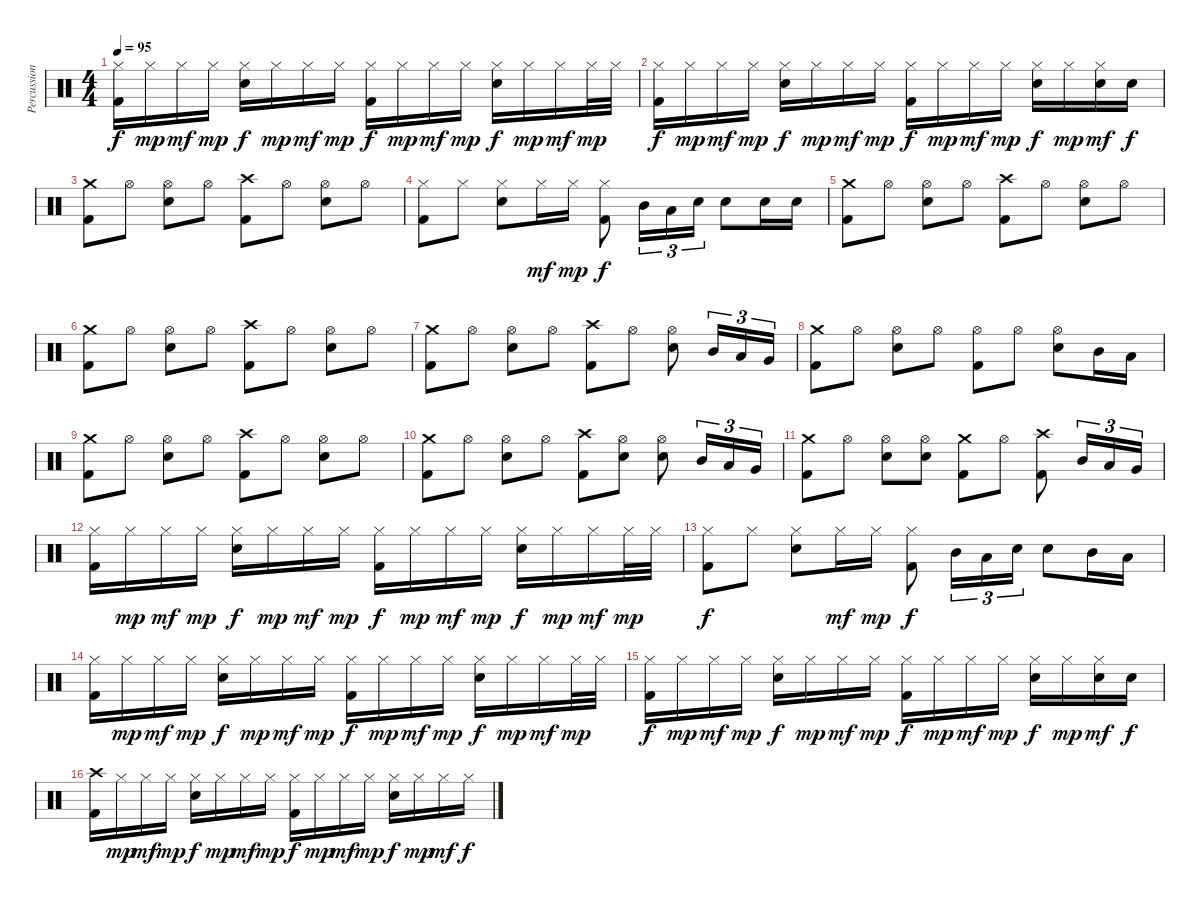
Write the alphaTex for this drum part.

\track ("Percussion" "Percussion") {instrument percussion}
\staff {score}
\articulation defaults
\ts (4 4)
\tempo 95
\clef neutral
\ks c
("Hi-Hat (closed)" "Kick (hit) 2").16{dy f} "Hi-Hat (closed)".16{dy mp} "Hi-Hat (closed)".16{dy mf} "Hi-Hat (closed)".16{dy mp} ("Hi-Hat (closed)" "Snare (hit) 2").16{dy f} "Hi-Hat (closed)".16{dy mp} "Hi-Hat (closed)".16{dy mf} "Hi-Hat (closed)".16{dy mp} ("Hi-Hat (closed)" "Kick (hit) 2").16{dy f} "Hi-Hat (closed)".16{dy mp} "Hi-Hat (closed)".16{dy mf} "Hi-Hat (closed)".16{dy mp} ("Hi-Hat (closed)" "Snare (hit) 2").16{dy f} "Hi-Hat (closed)".16{dy mp} "Hi-Hat (closed)".16{dy mf} "Hi-Hat (closed)".32{dy mp} "Hi-Hat (closed)".32 |
("Hi-Hat (closed)" "Kick (hit) 2").16{dy f} "Hi-Hat (closed)".16{dy mp} "Hi-Hat (closed)".16{dy mf} "Hi-Hat (closed)".16{dy mp} ("Hi-Hat (closed)" "Snare (hit) 2").16{dy f} "Hi-Hat (closed)".16{dy mp} "Hi-Hat (closed)".16{dy mf} "Hi-Hat (closed)".16{dy mp} ("Hi-Hat (closed)" "Kick (hit) 2").16{dy f} "Hi-Hat (closed)".16{dy mp} "Hi-Hat (closed)".16{dy mf} "Hi-Hat (closed)".16{dy mp} ("Hi-Hat (closed)" "Snare (hit) 2").16{dy f} "Hi-Hat (closed)".16{dy mp} ("Hi-Hat (closed)" "Snare (hit) 2").16{dy mf} "Snare (hit) 2".16{dy f} |
("Crash medium (hit)" "Kick (hit) 2").8 "Hi-Hat (open)".8 ("Hi-Hat (open)" "Snare (hit) 2").8 "Hi-Hat (open)".8 ("Crash high (hit)" "Kick (hit) 2").8 "Hi-Hat (open)".8 ("Hi-Hat (open)" "Snare (hit) 2").8 "Hi-Hat (open)".8 |
("Hi-Hat (closed)" "Kick (hit) 2").8 "Hi-Hat (closed)".8 ("Hi-Hat (closed)" "Snare (hit) 2").8 "Hi-Hat (closed)".16{dy mf} "Hi-Hat (closed)".16{dy mp} ("Hi-Hat (closed)" "Kick (hit) 2").8{dy f} "Mid Tom (hit)".16{tu (3 2)} "Low Tom (hit)".16{tu (3 2)} "Snare (hit) 2".16{tu (3 2)} "Snare (hit) 2".8 "Snare (hit) 2".16 "Snare (hit) 2".16 |
("Crash medium (hit)" "Kick (hit) 2").8 "Hi-Hat (open)".8 ("Hi-Hat (open)" "Snare (hit) 2").8 "Hi-Hat (open)".8 ("Crash high (hit)" "Kick (hit) 2").8 "Hi-Hat (open)".8 ("Hi-Hat (open)" "Snare (hit) 2").8 "Hi-Hat (open)".8 |
("Crash medium (hit)" "Kick (hit) 2").8 "Hi-Hat (open)".8 ("Hi-Hat (open)" "Snare (hit) 2").8 "Hi-Hat (open)".8 ("Crash high (hit)" "Kick (hit) 2").8 "Hi-Hat (open)".8 ("Hi-Hat (open)" "Snare (hit) 2").8 "Hi-Hat (open)".8 |
("Crash medium (hit)" "Kick (hit) 2").8 "Hi-Hat (open)".8 ("Hi-Hat (open)" "Snare (hit) 2").8 "Hi-Hat (open)".8 ("Crash high (hit)" "Kick (hit) 2").8 "Hi-Hat (open)".8 ("Hi-Hat (open)" "Snare (hit) 2").8 "Mid Tom (hit)".16{tu (3 2)} "Low Tom (hit)".16{tu (3 2)} "Very Low Tom (hit)".16{tu (3 2)} |
("Crash medium (hit)" "Kick (hit) 2").8 "Hi-Hat (open)".8 ("Hi-Hat (open)" "Snare (hit) 2").8 "Hi-Hat (open)".8 ("Hi-Hat (open)" "Kick (hit) 2").8 "Hi-Hat (open)".8 ("Hi-Hat (open)" "Snare (hit) 2").8 "Mid Tom (hit)".16 "Low Tom (hit)".16 |
("Crash medium (hit)" "Kick (hit) 2").8 "Hi-Hat (open)".8 ("Hi-Hat (open)" "Snare (hit) 2").8 "Hi-Hat (open)".8 ("Crash high (hit)" "Kick (hit) 2").8 "Hi-Hat (open)".8 ("Hi-Hat (open)" "Snare (hit) 2").8 "Hi-Hat (open)".8 |
("Crash medium (hit)" "Kick (hit) 2").8 "Hi-Hat (open)".8 ("Hi-Hat (open)" "Snare (hit) 2").8 "Hi-Hat (open)".8 ("Crash high (hit)" "Kick (hit) 2").8 ("Hi-Hat (open)" "Snare (hit) 2").8 ("Hi-Hat (open)" "Snare (hit) 2").8 "Mid Tom (hit)".16{tu (3 2)} "Low Tom (hit)".16{tu (3 2)} "Very Low Tom (hit)".16{tu (3 2)} |
("Crash medium (hit)" "Kick (hit) 2").8 "Hi-Hat (open)".8 ("Hi-Hat (open)" "Snare (hit) 2").8 ("Hi-Hat (open)" "Snare (hit) 2").8 ("Crash medium (hit)" "Kick (hit) 2").8 "Hi-Hat (open)".8 ("Crash high (hit)" "Kick (hit) 2").8 "Mid Tom (hit)".16{tu (3 2)} "Low Tom (hit)".16{tu (3 2)} "Very Low Tom (hit)".16{tu (3 2)} |
("Hi-Hat (closed)" "Kick (hit) 2").16 "Hi-Hat (closed)".16{dy mp} "Hi-Hat (closed)".16{dy mf} "Hi-Hat (closed)".16{dy mp} ("Hi-Hat (closed)" "Snare (hit) 2").16{dy f} "Hi-Hat (closed)".16{dy mp} "Hi-Hat (closed)".16{dy mf} "Hi-Hat (closed)".16{dy mp} ("Hi-Hat (closed)" "Kick (hit) 2").16{dy f} "Hi-Hat (closed)".16{dy mp} "Hi-Hat (closed)".16{dy mf} "Hi-Hat (closed)".16{dy mp} ("Hi-Hat (closed)" "Snare (hit) 2").16{dy f} "Hi-Hat (closed)".16{dy mp} "Hi-Hat (closed)".16{dy mf} "Hi-Hat (closed)".32{dy mp} "Hi-Hat (closed)".32 |
("Hi-Hat (closed)" "Kick (hit) 2").8{dy f} "Hi-Hat (closed)".8 ("Hi-Hat (closed)" "Snare (hit) 2").8 "Hi-Hat (closed)".16{dy mf} "Hi-Hat (closed)".16{dy mp} ("Hi-Hat (closed)" "Kick (hit) 2").8{dy f} "Mid Tom (hit)".16{tu (3 2)} "Low Tom (hit)".16{tu (3 2)} "Snare (hit) 2".16{tu (3 2)} "Snare (hit) 2".8 "Mid Tom (hit)".16 "Low Tom (hit)".16 |
("Hi-Hat (closed)" "Kick (hit) 2").16 "Hi-Hat (closed)".16{dy mp} "Hi-Hat (closed)".16{dy mf} "Hi-Hat (closed)".16{dy mp} ("Hi-Hat (closed)" "Snare (hit) 2").16{dy f} "Hi-Hat (closed)".16{dy mp} "Hi-Hat (closed)".16{dy mf} "Hi-Hat (closed)".16{dy mp} ("Hi-Hat (closed)" "Kick (hit) 2").16{dy f} "Hi-Hat (closed)".16{dy mp} "Hi-Hat (closed)".16{dy mf} "Hi-Hat (closed)".16{dy mp} ("Hi-Hat (closed)" "Snare (hit) 2").16{dy f} "Hi-Hat (closed)".16{dy mp} "Hi-Hat (closed)".16{dy mf} "Hi-Hat (closed)".32{dy mp} "Hi-Hat (closed)".32 |
("Hi-Hat (closed)" "Kick (hit) 2").16{dy f} "Hi-Hat (closed)".16{dy mp} "Hi-Hat (closed)".16{dy mf} "Hi-Hat (closed)".16{dy mp} ("Hi-Hat (closed)" "Snare (hit) 2").16{dy f} "Hi-Hat (closed)".16{dy mp} "Hi-Hat (closed)".16{dy mf} "Hi-Hat (closed)".16{dy mp} ("Hi-Hat (closed)" "Kick (hit) 2").16{dy f} "Hi-Hat (closed)".16{dy mp} "Hi-Hat (closed)".16{dy mf} "Hi-Hat (closed)".16{dy mp} ("Hi-Hat (closed)" "Snare (hit) 2").16{dy f} "Hi-Hat (closed)".16{dy mp} ("Hi-Hat (closed)" "Snare (hit) 2").16{dy mf} "Snare (hit) 2".16{dy f} |
("Crash high (hit)" "Kick (hit) 2").16 "Hi-Hat (closed)".16{dy mp} "Hi-Hat (closed)".16{dy mf} "Hi-Hat (closed)".16{dy mp} ("Hi-Hat (closed)" "Snare (hit) 2").16{dy f} "Hi-Hat (closed)".16{dy mp} "Hi-Hat (closed)".16{dy mf} "Hi-Hat (closed)".16{dy mp} ("Hi-Hat (closed)" "Kick (hit) 2").16{dy f} "Hi-Hat (closed)".16{dy mp} "Hi-Hat (closed)".16{dy mf} "Hi-Hat (closed)".16{dy mp} ("Hi-Hat (closed)" "Snare (hit) 2").16{dy f} "Hi-Hat (closed)".16{dy mp} "Hi-Hat (closed)".16{dy mf} "Hi-Hat (closed)".16{dy f}
